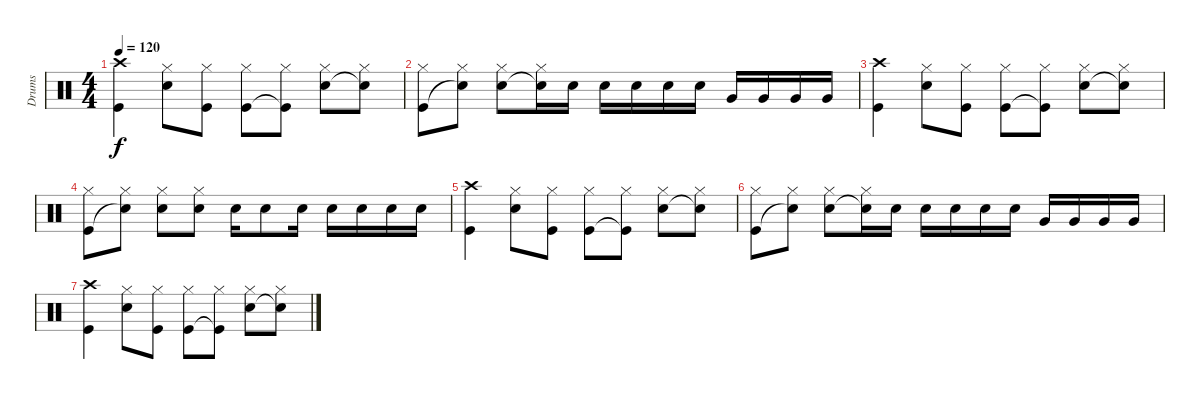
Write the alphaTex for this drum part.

\track ("Drums" "Drums") {instrument percussion}
\staff {score}
\articulation defaults
\ts (4 4)
\tempo 120
\clef neutral
\ks c
("Kick (hit)" "Crash high (hit)").4{dy f} ("Snare (hit) 2" "Hi-Hat (closed)").8 ("Kick (hit)" "Hi-Hat (closed)").8 ("Kick (hit)" "Hi-Hat (closed)").8 ("Kick (hit)"{t} "Hi-Hat (closed)").8 ("Snare (hit) 2" "Hi-Hat (closed)").8 ("Snare (hit)"{t} "Hi-Hat (closed)").8 |
("Kick (hit)" "Hi-Hat (closed)").8{volume 12} ("Snare (hit)"{t} "Hi-Hat (closed)").8 ("Snare (hit) 2" "Hi-Hat (closed)").8 ("Snare (hit)"{t} "Hi-Hat (closed)").16 "Snare (hit) 2".16 "Snare (hit) 2".16 "Snare (hit) 2".16 "Snare (hit) 2".16 "Snare (hit) 2".16 "Very Low Tom (hit)".16 "Very Low Tom (hit)".16 "Very Low Tom (hit)".16 "Very Low Tom (hit)".16 |
("Kick (hit)" "Crash high (hit)").4 ("Snare (hit) 2" "Hi-Hat (closed)").8 ("Kick (hit)" "Hi-Hat (closed)").8 ("Kick (hit)" "Hi-Hat (closed)").8 ("Kick (hit)"{t} "Hi-Hat (closed)").8 ("Snare (hit) 2" "Hi-Hat (closed)").8 ("Snare (hit)"{t} "Hi-Hat (closed)").8 |
("Kick (hit)" "Hi-Hat (closed)").8{volume 8} ("Snare (hit)"{t} "Hi-Hat (closed)").8 ("Snare (hit) 2" "Hi-Hat (closed)").8 ("Snare (hit) 2" "Hi-Hat (closed)").8 "Snare (hit) 2".16 "Snare (hit) 2".8 "Snare (hit) 2".16 "Snare (hit) 2".16 "Snare (hit) 2".16 "Snare (hit) 2".16 "Snare (hit) 2".16 |
("Kick (hit)" "Crash high (hit)").4 ("Snare (hit) 2" "Hi-Hat (closed)").8 ("Kick (hit)" "Hi-Hat (closed)").8 ("Kick (hit)" "Hi-Hat (closed)").8 ("Kick (hit)"{t} "Hi-Hat (closed)").8 ("Snare (hit) 2" "Hi-Hat (closed)").8 ("Snare (hit)"{t} "Hi-Hat (closed)").8 |
("Kick (hit)" "Hi-Hat (closed)").8{volume 4} ("Snare (hit)"{t} "Hi-Hat (closed)").8 ("Snare (hit) 2" "Hi-Hat (closed)").8 ("Snare (hit)"{t} "Hi-Hat (closed)").16 "Snare (hit) 2".16 "Snare (hit) 2".16 "Snare (hit) 2".16 "Snare (hit) 2".16 "Snare (hit) 2".16 "Very Low Tom (hit)".16 "Very Low Tom (hit)".16 "Very Low Tom (hit)".16 "Very Low Tom (hit)".16 |
("Kick (hit)" "Crash high (hit)").4{volume 2} ("Snare (hit) 2" "Hi-Hat (closed)").8 ("Kick (hit)" "Hi-Hat (closed)").8 ("Kick (hit)" "Hi-Hat (closed)").8 ("Kick (hit)"{t} "Hi-Hat (closed)").8 ("Snare (hit) 2" "Hi-Hat (closed)").8 ("Snare (hit)"{t} "Hi-Hat (closed)").8
